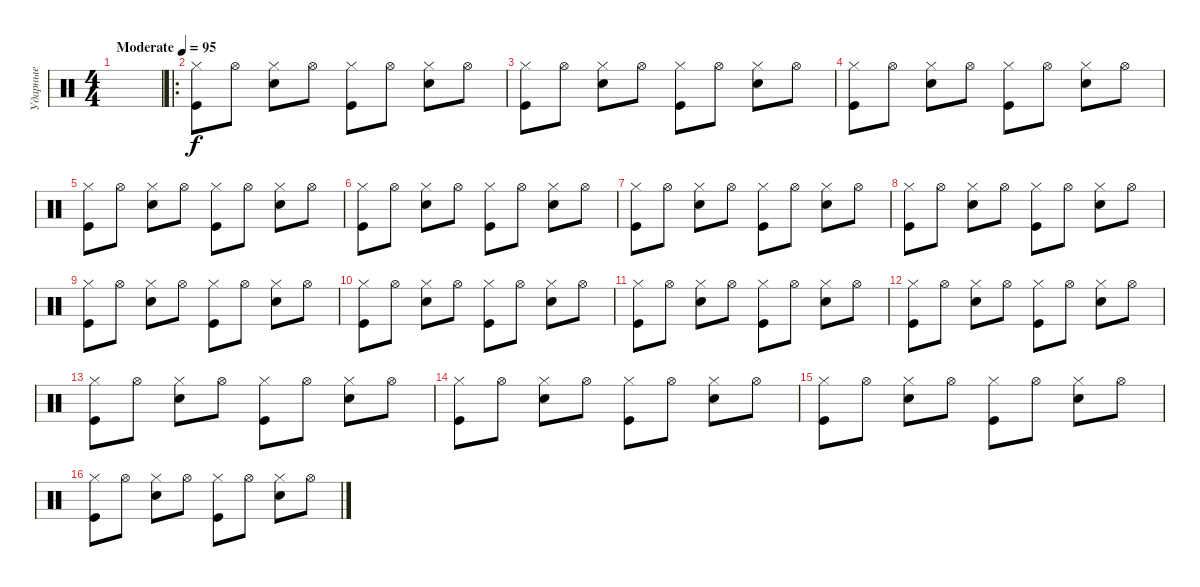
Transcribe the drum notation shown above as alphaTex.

\track ("Ударные" "Ударные") {solo instrument percussion}
\staff {score}
\articulation defaults
\ts (4 4)
\tempo (95 "Moderate")
\clef neutral
\ks c
|
\ro
("Kick (hit)" "Hi-Hat (closed)").8 "Hi-Hat (open)".8 ("Snare (hit) 2" "Hi-Hat (closed)").8 "Hi-Hat (open)".8 ("Kick (hit)" "Hi-Hat (closed)").8 "Hi-Hat (open)".8 ("Snare (hit) 2" "Hi-Hat (closed)").8 "Hi-Hat (open)".8 |
("Kick (hit)" "Hi-Hat (closed)").8 "Hi-Hat (open)".8 ("Snare (hit) 2" "Hi-Hat (closed)").8 "Hi-Hat (open)".8 ("Kick (hit)" "Hi-Hat (closed)").8 "Hi-Hat (open)".8 ("Snare (hit) 2" "Hi-Hat (closed)").8 "Hi-Hat (open)".8 |
("Kick (hit)" "Hi-Hat (closed)").8 "Hi-Hat (open)".8 ("Snare (hit) 2" "Hi-Hat (closed)").8 "Hi-Hat (open)".8 ("Kick (hit)" "Hi-Hat (closed)").8 "Hi-Hat (open)".8 ("Snare (hit) 2" "Hi-Hat (closed)").8 "Hi-Hat (open)".8 |
("Kick (hit)" "Hi-Hat (closed)").8 "Hi-Hat (open)".8 ("Snare (hit) 2" "Hi-Hat (closed)").8 "Hi-Hat (open)".8 ("Kick (hit)" "Hi-Hat (closed)").8 "Hi-Hat (open)".8 ("Snare (hit) 2" "Hi-Hat (closed)").8 "Hi-Hat (open)".8 |
("Kick (hit)" "Hi-Hat (closed)").8 "Hi-Hat (open)".8 ("Snare (hit) 2" "Hi-Hat (closed)").8 "Hi-Hat (open)".8 ("Kick (hit)" "Hi-Hat (closed)").8 "Hi-Hat (open)".8 ("Snare (hit) 2" "Hi-Hat (closed)").8 "Hi-Hat (open)".8 |
("Kick (hit)" "Hi-Hat (closed)").8 "Hi-Hat (open)".8 ("Snare (hit) 2" "Hi-Hat (closed)").8 "Hi-Hat (open)".8 ("Kick (hit)" "Hi-Hat (closed)").8 "Hi-Hat (open)".8 ("Snare (hit) 2" "Hi-Hat (closed)").8 "Hi-Hat (open)".8 |
("Kick (hit)" "Hi-Hat (closed)").8 "Hi-Hat (open)".8 ("Snare (hit) 2" "Hi-Hat (closed)").8 "Hi-Hat (open)".8 ("Kick (hit)" "Hi-Hat (closed)").8 "Hi-Hat (open)".8 ("Snare (hit) 2" "Hi-Hat (closed)").8 "Hi-Hat (open)".8 |
("Kick (hit)" "Hi-Hat (closed)").8 "Hi-Hat (open)".8 ("Snare (hit) 2" "Hi-Hat (closed)").8 "Hi-Hat (open)".8 ("Kick (hit)" "Hi-Hat (closed)").8 "Hi-Hat (open)".8 ("Snare (hit) 2" "Hi-Hat (closed)").8 "Hi-Hat (open)".8 |
("Kick (hit)" "Hi-Hat (closed)").8 "Hi-Hat (open)".8 ("Snare (hit) 2" "Hi-Hat (closed)").8 "Hi-Hat (open)".8 ("Kick (hit)" "Hi-Hat (closed)").8 "Hi-Hat (open)".8 ("Snare (hit) 2" "Hi-Hat (closed)").8 "Hi-Hat (open)".8 |
("Kick (hit)" "Hi-Hat (closed)").8 "Hi-Hat (open)".8 ("Snare (hit) 2" "Hi-Hat (closed)").8 "Hi-Hat (open)".8 ("Kick (hit)" "Hi-Hat (closed)").8 "Hi-Hat (open)".8 ("Snare (hit) 2" "Hi-Hat (closed)").8 "Hi-Hat (open)".8 |
("Kick (hit)" "Hi-Hat (closed)").8 "Hi-Hat (open)".8 ("Snare (hit) 2" "Hi-Hat (closed)").8 "Hi-Hat (open)".8 ("Kick (hit)" "Hi-Hat (closed)").8 "Hi-Hat (open)".8 ("Snare (hit) 2" "Hi-Hat (closed)").8 "Hi-Hat (open)".8 |
("Kick (hit)" "Hi-Hat (closed)").8 "Hi-Hat (open)".8 ("Snare (hit) 2" "Hi-Hat (closed)").8 "Hi-Hat (open)".8 ("Kick (hit)" "Hi-Hat (closed)").8 "Hi-Hat (open)".8 ("Snare (hit) 2" "Hi-Hat (closed)").8 "Hi-Hat (open)".8 |
("Kick (hit)" "Hi-Hat (closed)").8 "Hi-Hat (open)".8 ("Snare (hit) 2" "Hi-Hat (closed)").8 "Hi-Hat (open)".8 ("Kick (hit)" "Hi-Hat (closed)").8 "Hi-Hat (open)".8 ("Snare (hit) 2" "Hi-Hat (closed)").8 "Hi-Hat (open)".8 |
("Kick (hit)" "Hi-Hat (closed)").8 "Hi-Hat (open)".8 ("Snare (hit) 2" "Hi-Hat (closed)").8 "Hi-Hat (open)".8 ("Kick (hit)" "Hi-Hat (closed)").8 "Hi-Hat (open)".8 ("Snare (hit) 2" "Hi-Hat (closed)").8 "Hi-Hat (open)".8 |
("Kick (hit)" "Hi-Hat (closed)").8 "Hi-Hat (open)".8 ("Snare (hit) 2" "Hi-Hat (closed)").8 "Hi-Hat (open)".8 ("Kick (hit)" "Hi-Hat (closed)").8 "Hi-Hat (open)".8 ("Snare (hit) 2" "Hi-Hat (closed)").8 "Hi-Hat (open)".8
